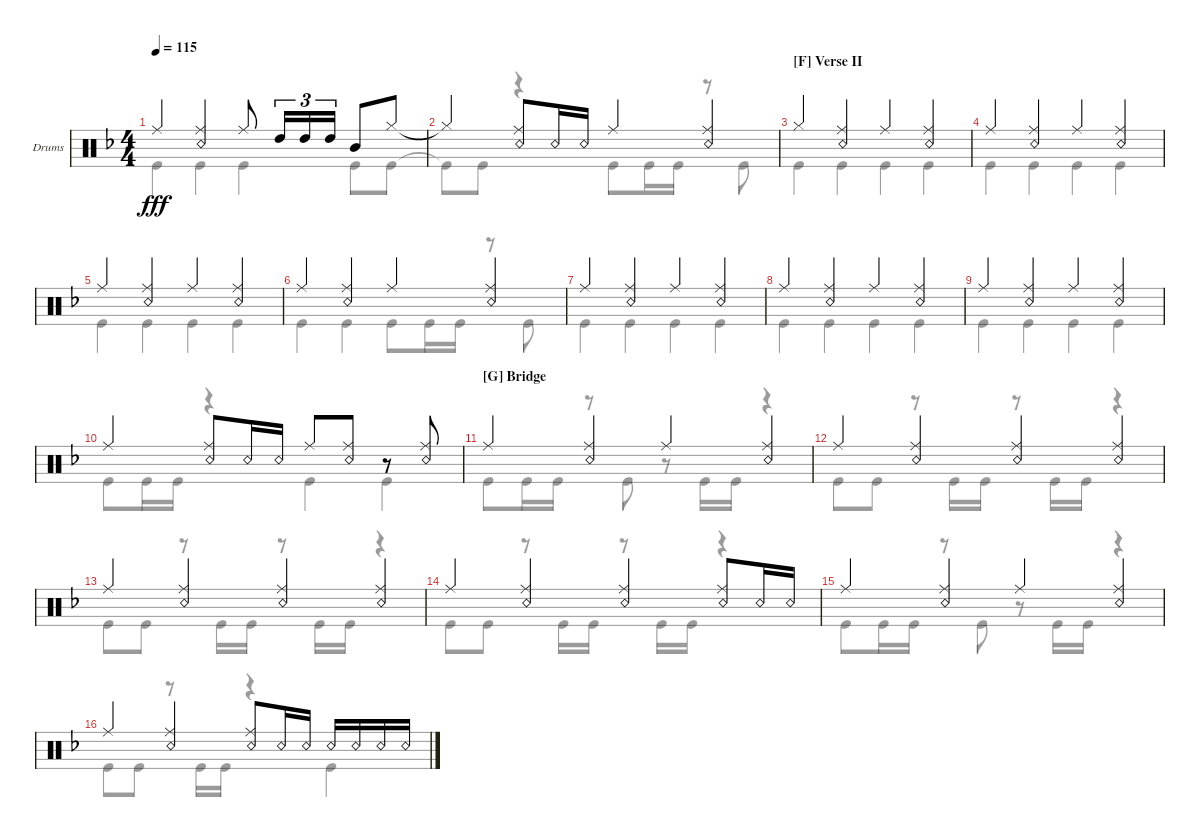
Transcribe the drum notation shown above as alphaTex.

\defaultSystemsLayout 4
\bracketExtendMode groupsimilarinstruments
\firstSystemTrackNameOrientation horizontal
\otherSystemsTrackNameOrientation horizontal
\track ("Randy Castillo" "Drums") {instrument percussion}
\staff {score}
\articulation defaults
\voice
\ts (4 4)
\tempo 115
\clef neutral
\ks f "Ride (middle)".4{dy fff}
("Ride (middle)" "Snare (rim shot)").4 "Ride (middle)".8 "High Tom (hit)".16{tu (3 2)} "High Tom (hit)".16{tu (3 2)} "High Tom (hit)".16{tu (3 2)} "Mid Tom (hit)".8 "Hi-Hat (closed)".8 |
"Hi-Hat (closed)"{t}.4 ("Ride (middle)" "Snare (rim shot)").8 "Snare (rim shot)".16 "Snare (rim shot)".16 "Ride (middle)".4 ("Ride (middle)" "Snare (rim shot)").4 |
\section ("F" "Verse II")
"Hi-Hat (closed)".4 ("Ride (middle)" "Snare (rim shot)").4 "Ride (middle)".4 ("Ride (middle)" "Snare (rim shot)").4 |
"Ride (middle)".4 ("Ride (middle)" "Snare (rim shot)").4 "Ride (middle)".4 ("Ride (middle)" "Snare (rim shot)").4 |
"Ride (middle)".4 ("Ride (middle)" "Snare (rim shot)").4 "Ride (middle)".4 ("Ride (middle)" "Snare (rim shot)").4 |
"Ride (middle)".4 ("Ride (middle)" "Snare (rim shot)").4 "Ride (middle)".4 ("Ride (middle)" "Snare (rim shot)").4 |
"Ride (middle)".4 ("Ride (middle)" "Snare (rim shot)").4 "Ride (middle)".4 ("Ride (middle)" "Snare (rim shot)").4 |
"Ride (middle)".4 ("Ride (middle)" "Snare (rim shot)").4 "Ride (middle)".4 ("Ride (middle)" "Snare (rim shot)").4 |
"Ride (middle)".4 ("Ride (middle)" "Snare (rim shot)").4 "Ride (middle)".4 ("Ride (middle)" "Snare (rim shot)").4 |
"Ride (middle)".4 ("Ride (middle)" "Snare (rim shot)").8 "Snare (rim shot)".16 "Snare (rim shot)".16 "Ride (middle)".8 ("Ride (middle)" "Snare (rim shot)").8 r.8 ("Ride (middle)" "Snare (rim shot)").8 |
\section ("G" "Bridge")
"Ride (middle)".4 ("Ride (middle)" "Snare (rim shot)").4 "Ride (middle)".4 ("Ride (middle)" "Snare (rim shot)").4 |
"Ride (middle)".4 ("Ride (middle)" "Snare (rim shot)").4 ("Ride (middle)" "Snare (rim shot)").4 ("Ride (middle)" "Snare (rim shot)").4 |
"Ride (middle)".4 ("Ride (middle)" "Snare (rim shot)").4 ("Ride (middle)" "Snare (rim shot)").4 ("Ride (middle)" "Snare (rim shot)").4 |
"Ride (middle)".4 ("Ride (middle)" "Snare (rim shot)").4 ("Ride (middle)" "Snare (rim shot)").4 ("Ride (middle)" "Snare (rim shot)").8 "Snare (rim shot)".16 "Snare (rim shot)".16 |
"Ride (middle)".4 ("Ride (middle)" "Snare (rim shot)").4 "Ride (middle)".4 ("Ride (middle)" "Snare (rim shot)").4 |
"Ride (middle)".4 ("Ride (middle)" "Snare (rim shot)").4 ("Snare (rim shot)" "Ride (middle)").8 "Snare (rim shot)".16 "Snare (rim shot)".16 "Snare (rim shot)".16 "Snare (rim shot)".16 "Snare (rim shot)".16 "Snare (rim shot)".16
\voice
\clef neutral
\ottava regular
\simile none
\ks f "Kick (hit)".4{dy fff} "Kick (hit)".4 "Kick (hit)".4 "Kick (hit)".8 "Kick (hit)".8
|
"Kick (hit)"{t}.8 "Kick (hit)".8 r.4 "Kick (hit)".8 "Kick (hit)".16 "Kick (hit)".16 r.8 "Kick (hit)".8 |
"Kick (hit)".4 "Kick (hit)".4 "Kick (hit)".4 "Kick (hit)".4 |
"Kick (hit)".4 "Kick (hit)".4 "Kick (hit)".4 "Kick (hit)".4 |
"Kick (hit)".4 "Kick (hit)".4 "Kick (hit)".4 "Kick (hit)".4 |
"Kick (hit)".4 "Kick (hit)".4 "Kick (hit)".8 "Kick (hit)".16 "Kick (hit)".16 r.8 "Kick (hit)".8 |
"Kick (hit)".4 "Kick (hit)".4 "Kick (hit)".4 "Kick (hit)".4 |
"Kick (hit)".4 "Kick (hit)".4 "Kick (hit)".4 "Kick (hit)".4 |
"Kick (hit)".4 "Kick (hit)".4 "Kick (hit)".4 "Kick (hit)".4 |
"Kick (hit)".8 "Kick (hit)".16 "Kick (hit)".16 r.4 "Kick (hit)".4 "Kick (hit)".4 |
"Kick (hit)".8 "Kick (hit)".16 "Kick (hit)".16 r.8 "Kick (hit)".8 r.8 "Kick (hit)".16 "Kick (hit)".16 r.4 |
"Kick (hit)".8 "Kick (hit)".8 r.8 "Kick (hit)".16 "Kick (hit)".16 r.8 "Kick (hit)".16 "Kick (hit)".16 r.4 |
"Kick (hit)".8 "Kick (hit)".8 r.8 "Kick (hit)".16 "Kick (hit)".16 r.8 "Kick (hit)".16 "Kick (hit)".16 r.4 |
"Kick (hit)".8 "Kick (hit)".8 r.8 "Kick (hit)".16 "Kick (hit)".16 r.8 "Kick (hit)".16 "Kick (hit)".16 r.4 |
"Kick (hit)".8 "Kick (hit)".16 "Kick (hit)".16 r.8 "Kick (hit)".8 r.8 "Kick (hit)".16 "Kick (hit)".16 r.4 |
"Kick (hit)".8 "Kick (hit)".8 r.8 "Kick (hit)".16 "Kick (hit)".16 r.4 "Kick (hit)".4
